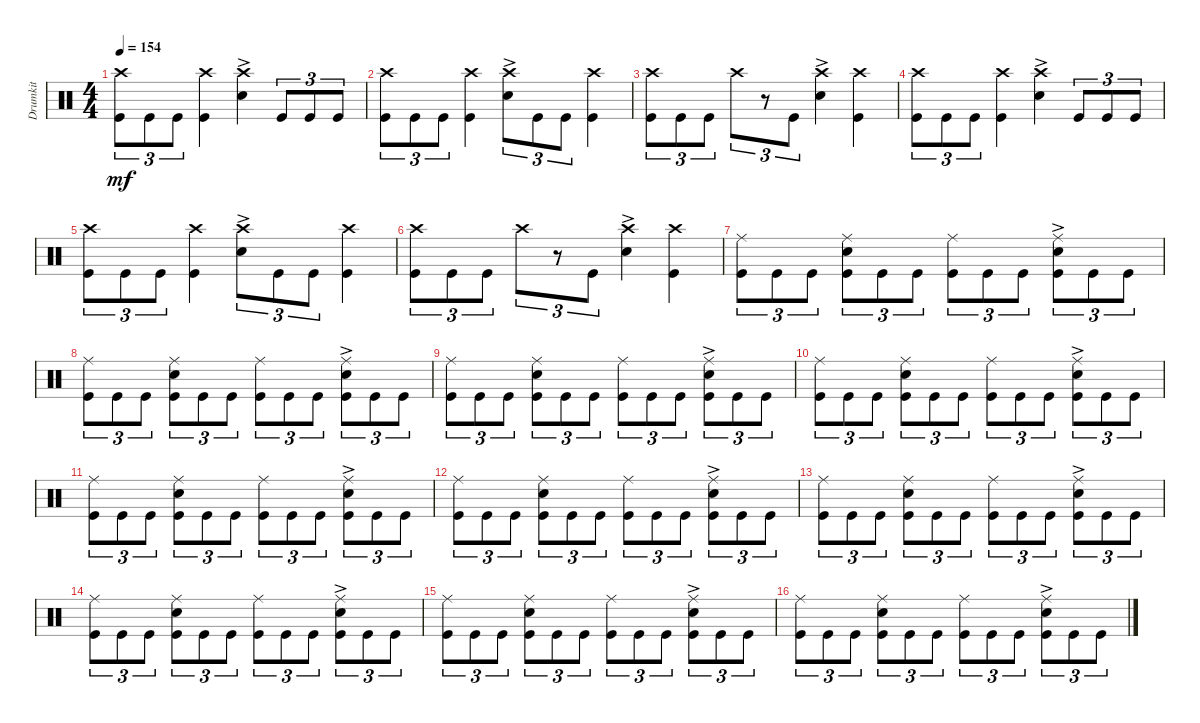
\track ("Drumkit" "Drumkit") {instrument percussion}
\staff {score}
\articulation defaults
\ts (4 4)
\tempo 154
\clef neutral
\ks c
("Crash high (hit)" "Kick (hit)").8{tu (3 2) dy mf} "Kick (hit)".8{tu (3 2)} "Kick (hit)".8{tu (3 2)} ("Crash high (hit)" "Kick (hit)").4 ("Crash high (hit)" "Snare (hit) 2"{ac}).4 "Kick (hit)".8{tu (3 2)} "Kick (hit)".8{tu (3 2)} "Kick (hit)".8{tu (3 2)} |
("Crash high (hit)" "Kick (hit)").8{tu (3 2)} "Kick (hit)".8{tu (3 2)} "Kick (hit)".8{tu (3 2)} ("Crash high (hit)" "Kick (hit)").4 ("Crash high (hit)" "Snare (hit) 2"{ac}).8{tu (3 2)} "Kick (hit)".8{tu (3 2)} "Kick (hit)".8{tu (3 2)} ("Kick (hit)" "Crash high (hit)").4 |
("Kick (hit)" "Crash high (hit)").8{tu (3 2)} "Kick (hit)".8{tu (3 2)} "Kick (hit)".8{tu (3 2)} "Crash high (hit)".8{tu (3 2)} r.8{tu (3 2)} "Kick (hit)".8{tu (3 2)} ("Crash high (hit)" "Snare (hit) 2"{ac}).4 ("Crash high (hit)" "Kick (hit)").4 |
("Crash high (hit)" "Kick (hit)").8{tu (3 2)} "Kick (hit)".8{tu (3 2)} "Kick (hit)".8{tu (3 2)} ("Crash high (hit)" "Kick (hit)").4 ("Crash high (hit)" "Snare (hit) 2"{ac}).4 "Kick (hit)".8{tu (3 2)} "Kick (hit)".8{tu (3 2)} "Kick (hit)".8{tu (3 2)} |
("Crash high (hit)" "Kick (hit)").8{tu (3 2)} "Kick (hit)".8{tu (3 2)} "Kick (hit)".8{tu (3 2)} ("Crash high (hit)" "Kick (hit)").4 ("Crash high (hit)" "Snare (hit) 2"{ac}).8{tu (3 2)} "Kick (hit)".8{tu (3 2)} "Kick (hit)".8{tu (3 2)} ("Kick (hit)" "Crash high (hit)").4 |
("Kick (hit)" "Crash high (hit)").8{tu (3 2)} "Kick (hit)".8{tu (3 2)} "Kick (hit)".8{tu (3 2)} "Crash high (hit)".8{tu (3 2)} r.8{tu (3 2)} "Kick (hit)".8{tu (3 2)} ("Crash high (hit)" "Snare (hit) 2"{ac}).4 ("Crash high (hit)" "Kick (hit)").4 |
("Kick (hit)" "Ride (middle)").8{tu (3 2)} "Kick (hit)".8{tu (3 2)} "Kick (hit)".8{tu (3 2)} ("Snare (hit) 2" "Ride (middle)" "Kick (hit)").8{tu (3 2)} "Kick (hit)".8{tu (3 2)} "Kick (hit)".8{tu (3 2)} ("Kick (hit)" "Ride (middle)").8{tu (3 2)} "Kick (hit)".8{tu (3 2)} "Kick (hit)".8{tu (3 2)} ("Snare (hit) 2"{ac} "Ride (middle)" "Kick (hit)").8{tu (3 2)} "Kick (hit)".8{tu (3 2)} "Kick (hit)".8{tu (3 2)} |
("Kick (hit)" "Ride (middle)").8{tu (3 2)} "Kick (hit)".8{tu (3 2)} "Kick (hit)".8{tu (3 2)} ("Snare (hit) 2" "Ride (middle)" "Kick (hit)").8{tu (3 2)} "Kick (hit)".8{tu (3 2)} "Kick (hit)".8{tu (3 2)} ("Kick (hit)" "Ride (middle)").8{tu (3 2)} "Kick (hit)".8{tu (3 2)} "Kick (hit)".8{tu (3 2)} ("Snare (hit) 2"{ac} "Ride (middle)" "Kick (hit)").8{tu (3 2)} "Kick (hit)".8{tu (3 2)} "Kick (hit)".8{tu (3 2)} |
("Kick (hit)" "Ride (middle)").8{tu (3 2)} "Kick (hit)".8{tu (3 2)} "Kick (hit)".8{tu (3 2)} ("Snare (hit) 2" "Ride (middle)" "Kick (hit)").8{tu (3 2)} "Kick (hit)".8{tu (3 2)} "Kick (hit)".8{tu (3 2)} ("Kick (hit)" "Ride (middle)").8{tu (3 2)} "Kick (hit)".8{tu (3 2)} "Kick (hit)".8{tu (3 2)} ("Snare (hit) 2"{ac} "Ride (middle)" "Kick (hit)").8{tu (3 2)} "Kick (hit)".8{tu (3 2)} "Kick (hit)".8{tu (3 2)} |
("Kick (hit)" "Ride (middle)").8{tu (3 2)} "Kick (hit)".8{tu (3 2)} "Kick (hit)".8{tu (3 2)} ("Snare (hit) 2" "Ride (middle)" "Kick (hit)").8{tu (3 2)} "Kick (hit)".8{tu (3 2)} "Kick (hit)".8{tu (3 2)} ("Kick (hit)" "Ride (middle)").8{tu (3 2)} "Kick (hit)".8{tu (3 2)} "Kick (hit)".8{tu (3 2)} ("Snare (hit) 2"{ac} "Ride (middle)" "Kick (hit)").8{tu (3 2)} "Kick (hit)".8{tu (3 2)} "Kick (hit)".8{tu (3 2)} |
("Kick (hit)" "Ride (middle)").8{tu (3 2)} "Kick (hit)".8{tu (3 2)} "Kick (hit)".8{tu (3 2)} ("Snare (hit) 2" "Ride (middle)" "Kick (hit)").8{tu (3 2)} "Kick (hit)".8{tu (3 2)} "Kick (hit)".8{tu (3 2)} ("Kick (hit)" "Ride (middle)").8{tu (3 2)} "Kick (hit)".8{tu (3 2)} "Kick (hit)".8{tu (3 2)} ("Snare (hit) 2"{ac} "Ride (middle)" "Kick (hit)").8{tu (3 2)} "Kick (hit)".8{tu (3 2)} "Kick (hit)".8{tu (3 2)} |
("Kick (hit)" "Ride (middle)").8{tu (3 2)} "Kick (hit)".8{tu (3 2)} "Kick (hit)".8{tu (3 2)} ("Snare (hit) 2" "Ride (middle)" "Kick (hit)").8{tu (3 2)} "Kick (hit)".8{tu (3 2)} "Kick (hit)".8{tu (3 2)} ("Kick (hit)" "Ride (middle)").8{tu (3 2)} "Kick (hit)".8{tu (3 2)} "Kick (hit)".8{tu (3 2)} ("Snare (hit) 2"{ac} "Ride (middle)" "Kick (hit)").8{tu (3 2)} "Kick (hit)".8{tu (3 2)} "Kick (hit)".8{tu (3 2)} |
("Kick (hit)" "Ride (middle)").8{tu (3 2)} "Kick (hit)".8{tu (3 2)} "Kick (hit)".8{tu (3 2)} ("Snare (hit) 2" "Ride (middle)" "Kick (hit)").8{tu (3 2)} "Kick (hit)".8{tu (3 2)} "Kick (hit)".8{tu (3 2)} ("Kick (hit)" "Ride (middle)").8{tu (3 2)} "Kick (hit)".8{tu (3 2)} "Kick (hit)".8{tu (3 2)} ("Snare (hit) 2"{ac} "Ride (middle)" "Kick (hit)").8{tu (3 2)} "Kick (hit)".8{tu (3 2)} "Kick (hit)".8{tu (3 2)} |
("Kick (hit)" "Ride (middle)").8{tu (3 2)} "Kick (hit)".8{tu (3 2)} "Kick (hit)".8{tu (3 2)} ("Snare (hit) 2" "Ride (middle)" "Kick (hit)").8{tu (3 2)} "Kick (hit)".8{tu (3 2)} "Kick (hit)".8{tu (3 2)} ("Kick (hit)" "Ride (middle)").8{tu (3 2)} "Kick (hit)".8{tu (3 2)} "Kick (hit)".8{tu (3 2)} ("Snare (hit) 2"{ac} "Ride (middle)" "Kick (hit)").8{tu (3 2)} "Kick (hit)".8{tu (3 2)} "Kick (hit)".8{tu (3 2)} |
("Kick (hit)" "Ride (middle)").8{tu (3 2)} "Kick (hit)".8{tu (3 2)} "Kick (hit)".8{tu (3 2)} ("Snare (hit) 2" "Ride (middle)" "Kick (hit)").8{tu (3 2)} "Kick (hit)".8{tu (3 2)} "Kick (hit)".8{tu (3 2)} ("Kick (hit)" "Ride (middle)").8{tu (3 2)} "Kick (hit)".8{tu (3 2)} "Kick (hit)".8{tu (3 2)} ("Snare (hit) 2"{ac} "Ride (middle)" "Kick (hit)").8{tu (3 2)} "Kick (hit)".8{tu (3 2)} "Kick (hit)".8{tu (3 2)} |
("Kick (hit)" "Ride (middle)").8{tu (3 2)} "Kick (hit)".8{tu (3 2)} "Kick (hit)".8{tu (3 2)} ("Snare (hit) 2" "Ride (middle)" "Kick (hit)").8{tu (3 2)} "Kick (hit)".8{tu (3 2)} "Kick (hit)".8{tu (3 2)} ("Kick (hit)" "Ride (middle)").8{tu (3 2)} "Kick (hit)".8{tu (3 2)} "Kick (hit)".8{tu (3 2)} ("Snare (hit) 2"{ac} "Ride (middle)" "Kick (hit)").8{tu (3 2)} "Kick (hit)".8{tu (3 2)} "Kick (hit)".8{tu (3 2)}
